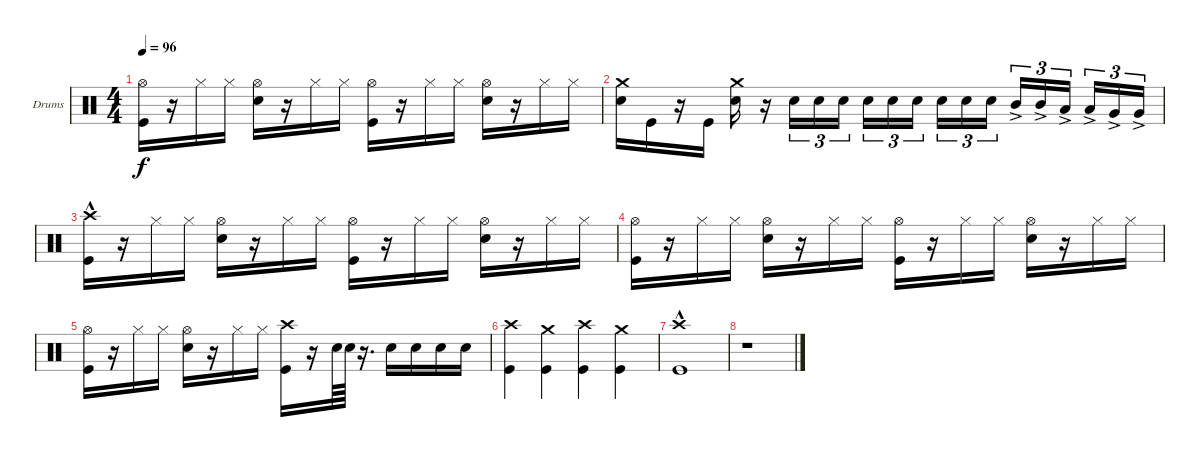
\defaultSystemsLayout 4
\bracketExtendMode groupsimilarinstruments
\firstSystemTrackNameOrientation horizontal
\otherSystemsTrackNameOrientation horizontal
\track ("Stefan Schwarzmann" "Drums") {instrument percussion}
\staff {score}
\articulation defaults
\ts (4 4)
\tempo 96
\clef neutral
\ks c
("Kick (hit)" "Hi-Hat (open)").16{dy f} r.16 "Hi-Hat (closed)".16 "Hi-Hat (closed)".16 ("Snare (hit) 2" "Hi-Hat (open)").16 r.16 "Hi-Hat (closed)".16 "Hi-Hat (closed)".16 ("Kick (hit)" "Hi-Hat (open)").16 r.16 "Hi-Hat (closed)".16 "Hi-Hat (closed)".16 ("Snare (hit) 2" "Hi-Hat (open)").16 r.16 "Hi-Hat (closed)".16 "Hi-Hat (closed)".16 |
("Snare (hit) 2" "Crash medium (hit)").16 "Kick (hit)".16 r.16 "Kick (hit)".16 ("Snare (hit) 2" "Crash medium (hit)").16 r.16 "Snare (hit) 2".16{tu (3 2)} "Snare (hit) 2".16{tu (3 2)} "Snare (hit) 2".16{tu (3 2)} "Snare (hit) 2".16{tu (3 2)} "Snare (hit) 2".16{tu (3 2)} "Snare (hit) 2".16{tu (3 2)} "Snare (hit) 2".16{tu (3 2)} "Snare (hit) 2".16{tu (3 2)} "Snare (hit) 2".16{tu (3 2)} "Mid Tom (hit)"{ac}.16{tu (3 2)} "Mid Tom (hit)"{ac}.16{tu (3 2)} "Low Tom (hit)"{ac}.16{tu (3 2)} "Low Tom (hit)"{ac}.16{tu (3 2)} "Very Low Tom (hit)"{ac}.16{tu (3 2)} "Very Low Tom (hit)"{ac}.16{tu (3 2)} |
("Kick (hit)"{hac} "Crash high (hit)"{hac}).16 r.16 "Hi-Hat (closed)".16 "Hi-Hat (closed)".16 ("Snare (hit) 2" "Hi-Hat (open)").16 r.16 "Hi-Hat (closed)".16 "Hi-Hat (closed)".16 ("Kick (hit)" "Hi-Hat (open)").16 r.16 "Hi-Hat (closed)".16 "Hi-Hat (closed)".16 ("Snare (hit) 2" "Hi-Hat (open)").16 r.16 "Hi-Hat (closed)".16 "Hi-Hat (closed)".16 |
("Kick (hit)" "Hi-Hat (open)").16 r.16 "Hi-Hat (closed)".16 "Hi-Hat (closed)".16 ("Snare (hit) 2" "Hi-Hat (open)").16 r.16 "Hi-Hat (closed)".16 "Hi-Hat (closed)".16 ("Kick (hit)" "Hi-Hat (open)").16 r.16 "Hi-Hat (closed)".16 "Hi-Hat (closed)".16 ("Snare (hit) 2" "Hi-Hat (open)").16 r.16 "Hi-Hat (closed)".16 "Hi-Hat (closed)".16 |
("Kick (hit)" "Hi-Hat (open)").16 r.16 "Hi-Hat (closed)".16 "Hi-Hat (closed)".16 ("Snare (hit) 2" "Hi-Hat (open)").16 r.16 "Hi-Hat (closed)".16 "Hi-Hat (closed)".16 ("Kick (hit)" "Crash high (hit)").16 r.16 "Snare (hit) 2".64 "Snare (hit) 2".64 r.16{d} "Snare (hit) 2".16 "Snare (hit) 2".16 "Snare (hit) 2".16 "Snare (hit) 2".16 |
("Kick (hit)" "Crash high (hit)").4 ("Kick (hit)" "Crash medium (hit)").4 ("Kick (hit)" "Crash high (hit)").4 ("Kick (hit)" "Crash medium (hit)").4 |
("Kick (hit)"{hac} "Crash high (hit)"{hac}).1 |
r.1
